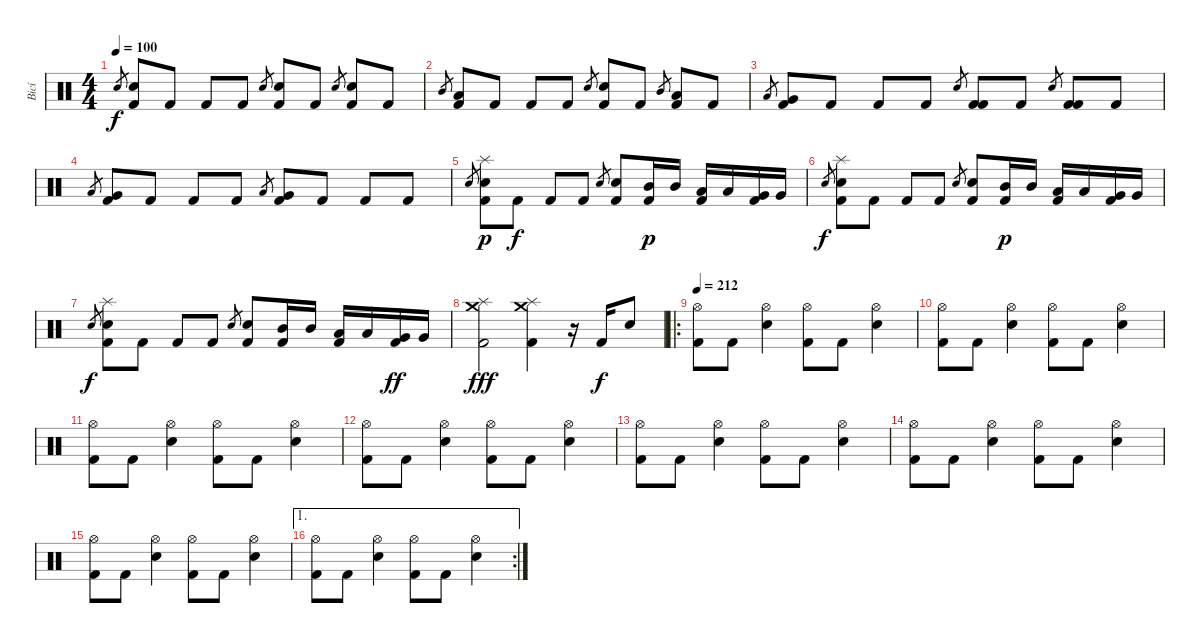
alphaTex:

\track ("Bicí" "Bicí") {instrument percussion}
\staff {score}
\articulation defaults
\ts (4 4)
\tempo 100
\clef neutral
\ks c "Snare (hit) 2".8{gr dy f}
("Snare (hit) 2" "Kick (hit) 2").8 "Kick (hit) 2".8 "Kick (hit) 2".8 "Kick (hit) 2".8 "Snare (hit) 2".8{gr} ("Kick (hit) 2" "Snare (hit) 2").8 "Kick (hit) 2".8 "Snare (hit) 2".8{gr} ("Kick (hit) 2" "Snare (hit) 2").8 "Kick (hit) 2".8 |
"Mid Tom (hit)".8{gr} ("Kick (hit) 2" "Low Tom (hit)").8 "Kick (hit) 2".8 "Kick (hit) 2".8 "Kick (hit) 2".8 "Snare (hit) 2".8{gr} ("Kick (hit) 2" "Snare (hit) 2").8 "Kick (hit) 2".8 "Mid Tom (hit)".8{gr} ("Kick (hit) 2" "Low Tom (hit)").8 "Kick (hit) 2".8 |
"Low Tom (hit)".8{gr} ("Kick (hit) 2" "Very Low Tom (hit)").8 "Kick (hit) 2".8 "Kick (hit) 2".8 "Kick (hit) 2".8 "Snare (hit) 2".8{gr} ("Kick (hit) 2" "Kick (hit) 2").8 "Kick (hit) 2".8 "Snare (hit) 2".8{gr} ("Kick (hit) 2" "Kick (hit) 2").8 "Kick (hit) 2".8 |
"Low Tom (hit)".8{gr} ("Kick (hit) 2" "Very Low Tom (hit)").8 "Kick (hit) 2".8 "Kick (hit) 2".8 "Kick (hit) 2".8 "Low Tom (hit)".8{gr} ("Kick (hit) 2" "Very Low Tom (hit)").8 "Kick (hit) 2".8 "Kick (hit) 2".8 "Kick (hit) 2".8 |
"Snare (hit) 2".8{gr} ("Snare (hit) 2" "Kick (hit) 2" "Splash (hit)").8{dy p} "Kick (hit) 2".8{dy f} "Kick (hit) 2".8 "Kick (hit) 2".8 "Snare (hit) 2".8{gr} ("Kick (hit) 2" "Snare (hit) 2").8 ("Kick (hit) 2" "Mid Tom (hit)").16{dy p} "Mid Tom (hit)".16 ("Kick (hit) 2" "Low Tom (hit)").16 "Low Tom (hit)".16 ("Kick (hit) 2" "Very Low Tom (hit)").16 "Very Low Tom (hit)".16 |
"Snare (hit) 2".8{gr dy f} ("Snare (hit) 2" "Kick (hit) 2" "Splash (hit)").8 "Kick (hit) 2".8 "Kick (hit) 2".8 "Kick (hit) 2".8 "Snare (hit) 2".8{gr} ("Kick (hit) 2" "Snare (hit) 2").8 ("Kick (hit) 2" "Mid Tom (hit)").16{dy p} "Mid Tom (hit)".16 ("Kick (hit) 2" "Low Tom (hit)").16 "Low Tom (hit)".16 ("Kick (hit) 2" "Very Low Tom (hit)").16 "Very Low Tom (hit)".16 |
"Snare (hit) 2".8{gr dy f} ("Snare (hit) 2" "Kick (hit) 2" "Splash (hit)").8 "Kick (hit) 2".8 "Kick (hit) 2".8 "Kick (hit) 2".8 "Snare (hit) 2".8{gr} ("Kick (hit) 2" "Snare (hit) 2").8 ("Kick (hit) 2" "Mid Tom (hit)").16 "Mid Tom (hit)".16 ("Kick (hit) 2" "Low Tom (hit)").16 "Low Tom (hit)".16 ("Kick (hit) 2" "Very Low Tom (hit)").16{dy ff} "Very Low Tom (hit)".16 |
("Kick (hit) 2" "Crash medium (hit)" "Splash (hit)").2{dy fff} ("Kick (hit) 2" "Crash medium (hit)" "Splash (hit)").4 r.16 "Kick (hit) 2".16{dy f} "Snare (hit) 2".8 |
\ro
\tempo 212
("Kick (hit) 2" "Hi-Hat (open)").8 "Kick (hit) 2".8 ("Snare (hit) 2" "Hi-Hat (open)").4 ("Kick (hit) 2" "Hi-Hat (open)").8 "Kick (hit) 2".8 ("Snare (hit) 2" "Hi-Hat (open)").4 |
("Kick (hit) 2" "Hi-Hat (open)").8 "Kick (hit) 2".8 ("Snare (hit) 2" "Hi-Hat (open)").4 ("Kick (hit) 2" "Hi-Hat (open)").8 "Kick (hit) 2".8 ("Snare (hit) 2" "Hi-Hat (open)").4 |
("Kick (hit) 2" "Hi-Hat (open)").8 "Kick (hit) 2".8 ("Snare (hit) 2" "Hi-Hat (open)").4 ("Kick (hit) 2" "Hi-Hat (open)").8 "Kick (hit) 2".8 ("Snare (hit) 2" "Hi-Hat (open)").4 |
("Kick (hit) 2" "Hi-Hat (open)").8 "Kick (hit) 2".8 ("Snare (hit) 2" "Hi-Hat (open)").4 ("Kick (hit) 2" "Hi-Hat (open)").8 "Kick (hit) 2".8 ("Snare (hit) 2" "Hi-Hat (open)").4 |
("Kick (hit) 2" "Hi-Hat (open)").8 "Kick (hit) 2".8 ("Snare (hit) 2" "Hi-Hat (open)").4 ("Kick (hit) 2" "Hi-Hat (open)").8 "Kick (hit) 2".8 ("Snare (hit) 2" "Hi-Hat (open)").4 |
("Kick (hit) 2" "Hi-Hat (open)").8 "Kick (hit) 2".8 ("Snare (hit) 2" "Hi-Hat (open)").4 ("Kick (hit) 2" "Hi-Hat (open)").8 "Kick (hit) 2".8 ("Snare (hit) 2" "Hi-Hat (open)").4 |
("Kick (hit) 2" "Hi-Hat (open)").8 "Kick (hit) 2".8 ("Snare (hit) 2" "Hi-Hat (open)").4 ("Kick (hit) 2" "Hi-Hat (open)").8 "Kick (hit) 2".8 ("Snare (hit) 2" "Hi-Hat (open)").4 |
\ae 1
\rc 2
("Kick (hit) 2" "Hi-Hat (open)").8 "Kick (hit) 2".8 ("Snare (hit) 2" "Hi-Hat (open)").4 ("Kick (hit) 2" "Hi-Hat (open)").8 "Kick (hit) 2".8 ("Snare (hit) 2" "Hi-Hat (open)").4
